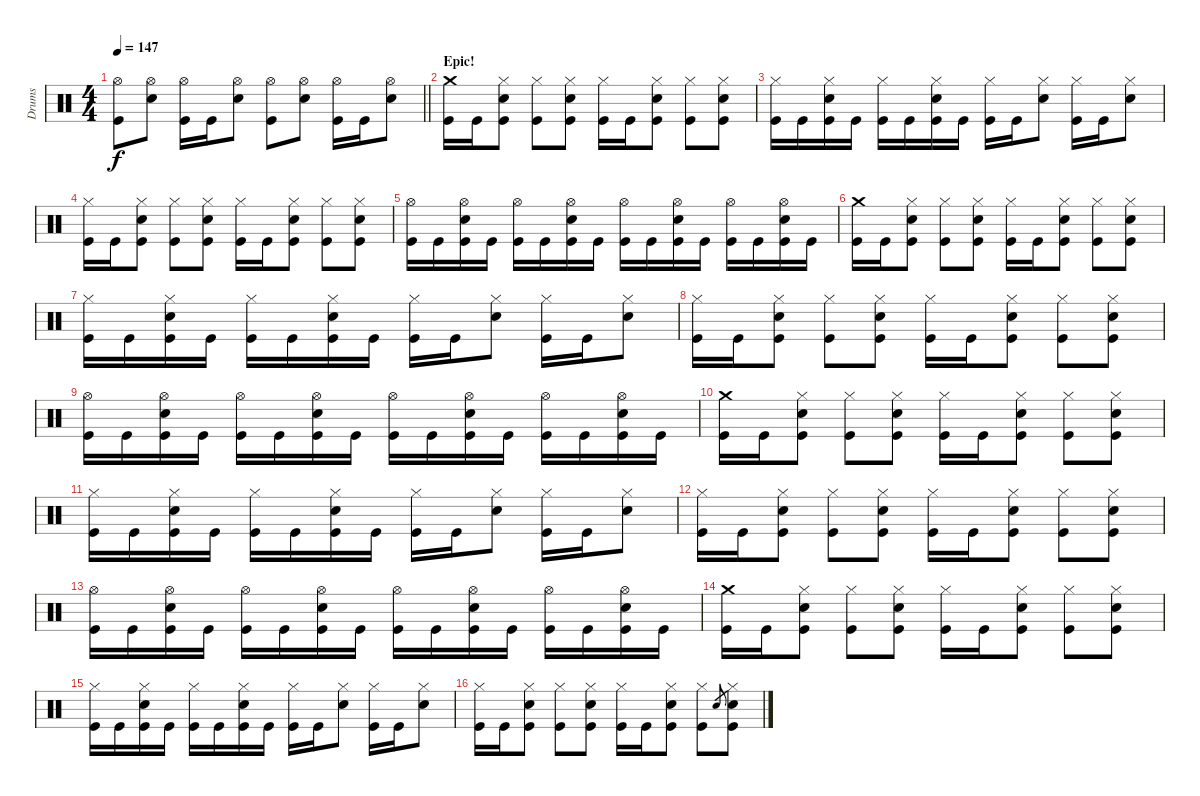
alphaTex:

\track ("Drums" "Drums") {instrument percussion}
\staff {score}
\articulation defaults
\ts (4 4)
\tempo 147
\clef neutral
\barLineRight lightlight
\ks c
("Hi-Hat (open)" "Kick (hit)").8{dy f} ("Hi-Hat (open)" "Electric Snare (hit)").8 ("Hi-Hat (open)" "Kick (hit)").16 "Kick (hit)".16 ("Hi-Hat (open)" "Electric Snare (hit)").8 ("Hi-Hat (open)" "Kick (hit)").8 ("Hi-Hat (open)" "Electric Snare (hit)").8 ("Hi-Hat (open)" "Kick (hit)").16 "Kick (hit)".16 ("Hi-Hat (open)" "Electric Snare (hit)").8 |
\section ("" "Epic!")
("Crash medium (hit)" "Kick (hit)").16 "Kick (hit)".16 ("Hi-Hat (closed)" "Electric Snare (hit)" "Kick (hit)").8 ("Hi-Hat (closed)" "Kick (hit)").8 ("Hi-Hat (closed)" "Electric Snare (hit)" "Kick (hit)").8 ("Hi-Hat (closed)" "Kick (hit)").16 "Kick (hit)".16 ("Hi-Hat (closed)" "Electric Snare (hit)" "Kick (hit)").8 ("Hi-Hat (closed)" "Kick (hit)").8 ("Hi-Hat (closed)" "Electric Snare (hit)" "Kick (hit)").8 |
("Hi-Hat (closed)" "Kick (hit)").16 "Kick (hit)".16 ("Hi-Hat (closed)" "Electric Snare (hit)" "Kick (hit)").16 "Kick (hit)".16 ("Hi-Hat (closed)" "Kick (hit)").16 "Kick (hit)".16 ("Hi-Hat (closed)" "Electric Snare (hit)" "Kick (hit)").16 "Kick (hit)".16 ("Hi-Hat (closed)" "Kick (hit)").16 "Kick (hit)".16 ("Hi-Hat (closed)" "Electric Snare (hit)").8 ("Hi-Hat (closed)" "Kick (hit)").16 "Kick (hit)".16 ("Hi-Hat (closed)" "Electric Snare (hit)").8 |
("Hi-Hat (closed)" "Kick (hit)").16 "Kick (hit)".16 ("Hi-Hat (closed)" "Electric Snare (hit)" "Kick (hit)").8 ("Hi-Hat (closed)" "Kick (hit)").8 ("Hi-Hat (closed)" "Electric Snare (hit)" "Kick (hit)").8 ("Hi-Hat (closed)" "Kick (hit)").16 "Kick (hit)".16 ("Hi-Hat (closed)" "Electric Snare (hit)" "Kick (hit)").8 ("Hi-Hat (closed)" "Kick (hit)").8 ("Hi-Hat (closed)" "Electric Snare (hit)" "Kick (hit)").8 |
("Hi-Hat (open)" "Kick (hit)").16 "Kick (hit)".16 ("Hi-Hat (open)" "Electric Snare (hit)" "Kick (hit)").16 "Kick (hit)".16 ("Hi-Hat (open)" "Kick (hit)").16 "Kick (hit)".16 ("Hi-Hat (open)" "Electric Snare (hit)" "Kick (hit)").16 "Kick (hit)".16 ("Hi-Hat (open)" "Kick (hit)").16 "Kick (hit)".16 ("Hi-Hat (open)" "Electric Snare (hit)" "Kick (hit)").16 "Kick (hit)".16 ("Hi-Hat (open)" "Kick (hit)").16 "Kick (hit)".16 ("Hi-Hat (open)" "Electric Snare (hit)" "Kick (hit)").16 "Kick (hit)".16 |
("Crash medium (hit)" "Kick (hit)").16 "Kick (hit)".16 ("Hi-Hat (closed)" "Electric Snare (hit)" "Kick (hit)").8 ("Hi-Hat (closed)" "Kick (hit)").8 ("Hi-Hat (closed)" "Electric Snare (hit)" "Kick (hit)").8 ("Hi-Hat (closed)" "Kick (hit)").16 "Kick (hit)".16 ("Hi-Hat (closed)" "Electric Snare (hit)" "Kick (hit)").8 ("Hi-Hat (closed)" "Kick (hit)").8 ("Hi-Hat (closed)" "Electric Snare (hit)" "Kick (hit)").8 |
("Hi-Hat (closed)" "Kick (hit)").16 "Kick (hit)".16 ("Hi-Hat (closed)" "Electric Snare (hit)" "Kick (hit)").16 "Kick (hit)".16 ("Hi-Hat (closed)" "Kick (hit)").16 "Kick (hit)".16 ("Hi-Hat (closed)" "Electric Snare (hit)" "Kick (hit)").16 "Kick (hit)".16 ("Hi-Hat (closed)" "Kick (hit)").16 "Kick (hit)".16 ("Hi-Hat (closed)" "Electric Snare (hit)").8 ("Hi-Hat (closed)" "Kick (hit)").16 "Kick (hit)".16 ("Hi-Hat (closed)" "Electric Snare (hit)").8 |
("Hi-Hat (closed)" "Kick (hit)").16 "Kick (hit)".16 ("Hi-Hat (closed)" "Electric Snare (hit)" "Kick (hit)").8 ("Hi-Hat (closed)" "Kick (hit)").8 ("Hi-Hat (closed)" "Electric Snare (hit)" "Kick (hit)").8 ("Hi-Hat (closed)" "Kick (hit)").16 "Kick (hit)".16 ("Hi-Hat (closed)" "Electric Snare (hit)" "Kick (hit)").8 ("Hi-Hat (closed)" "Kick (hit)").8 ("Hi-Hat (closed)" "Electric Snare (hit)" "Kick (hit)").8 |
("Hi-Hat (open)" "Kick (hit)").16 "Kick (hit)".16 ("Hi-Hat (open)" "Electric Snare (hit)" "Kick (hit)").16 "Kick (hit)".16 ("Hi-Hat (open)" "Kick (hit)").16 "Kick (hit)".16 ("Hi-Hat (open)" "Electric Snare (hit)" "Kick (hit)").16 "Kick (hit)".16 ("Hi-Hat (open)" "Kick (hit)").16 "Kick (hit)".16 ("Hi-Hat (open)" "Electric Snare (hit)" "Kick (hit)").16 "Kick (hit)".16 ("Hi-Hat (open)" "Kick (hit)").16 "Kick (hit)".16 ("Hi-Hat (open)" "Electric Snare (hit)" "Kick (hit)").16 "Kick (hit)".16 |
("Crash medium (hit)" "Kick (hit)").16 "Kick (hit)".16 ("Hi-Hat (closed)" "Electric Snare (hit)" "Kick (hit)").8 ("Hi-Hat (closed)" "Kick (hit)").8 ("Hi-Hat (closed)" "Electric Snare (hit)" "Kick (hit)").8 ("Hi-Hat (closed)" "Kick (hit)").16 "Kick (hit)".16 ("Hi-Hat (closed)" "Electric Snare (hit)" "Kick (hit)").8 ("Hi-Hat (closed)" "Kick (hit)").8 ("Hi-Hat (closed)" "Electric Snare (hit)" "Kick (hit)").8 |
("Hi-Hat (closed)" "Kick (hit)").16 "Kick (hit)".16 ("Hi-Hat (closed)" "Electric Snare (hit)" "Kick (hit)").16 "Kick (hit)".16 ("Hi-Hat (closed)" "Kick (hit)").16 "Kick (hit)".16 ("Hi-Hat (closed)" "Electric Snare (hit)" "Kick (hit)").16 "Kick (hit)".16 ("Hi-Hat (closed)" "Kick (hit)").16 "Kick (hit)".16 ("Hi-Hat (closed)" "Electric Snare (hit)").8 ("Hi-Hat (closed)" "Kick (hit)").16 "Kick (hit)".16 ("Hi-Hat (closed)" "Electric Snare (hit)").8 |
("Hi-Hat (closed)" "Kick (hit)").16 "Kick (hit)".16 ("Hi-Hat (closed)" "Electric Snare (hit)" "Kick (hit)").8 ("Hi-Hat (closed)" "Kick (hit)").8 ("Hi-Hat (closed)" "Electric Snare (hit)" "Kick (hit)").8 ("Hi-Hat (closed)" "Kick (hit)").16 "Kick (hit)".16 ("Hi-Hat (closed)" "Electric Snare (hit)" "Kick (hit)").8 ("Hi-Hat (closed)" "Kick (hit)").8 ("Hi-Hat (closed)" "Electric Snare (hit)" "Kick (hit)").8 |
("Hi-Hat (open)" "Kick (hit)").16 "Kick (hit)".16 ("Hi-Hat (open)" "Electric Snare (hit)" "Kick (hit)").16 "Kick (hit)".16 ("Hi-Hat (open)" "Kick (hit)").16 "Kick (hit)".16 ("Hi-Hat (open)" "Electric Snare (hit)" "Kick (hit)").16 "Kick (hit)".16 ("Hi-Hat (open)" "Kick (hit)").16 "Kick (hit)".16 ("Hi-Hat (open)" "Electric Snare (hit)" "Kick (hit)").16 "Kick (hit)".16 ("Hi-Hat (open)" "Kick (hit)").16 "Kick (hit)".16 ("Hi-Hat (open)" "Electric Snare (hit)" "Kick (hit)").16 "Kick (hit)".16 |
("Crash medium (hit)" "Kick (hit)").16 "Kick (hit)".16 ("Hi-Hat (closed)" "Electric Snare (hit)" "Kick (hit)").8 ("Hi-Hat (closed)" "Kick (hit)").8 ("Hi-Hat (closed)" "Electric Snare (hit)" "Kick (hit)").8 ("Hi-Hat (closed)" "Kick (hit)").16 "Kick (hit)".16 ("Hi-Hat (closed)" "Electric Snare (hit)" "Kick (hit)").8 ("Hi-Hat (closed)" "Kick (hit)").8 ("Hi-Hat (closed)" "Electric Snare (hit)" "Kick (hit)").8 |
("Hi-Hat (closed)" "Kick (hit)").16 "Kick (hit)".16 ("Hi-Hat (closed)" "Electric Snare (hit)" "Kick (hit)").16 "Kick (hit)".16 ("Hi-Hat (closed)" "Kick (hit)").16 "Kick (hit)".16 ("Hi-Hat (closed)" "Electric Snare (hit)" "Kick (hit)").16 "Kick (hit)".16 ("Hi-Hat (closed)" "Kick (hit)").16 "Kick (hit)".16 ("Hi-Hat (closed)" "Electric Snare (hit)").8 ("Hi-Hat (closed)" "Kick (hit)").16 "Kick (hit)".16 ("Hi-Hat (closed)" "Electric Snare (hit)").8 |
("Hi-Hat (closed)" "Kick (hit)").16 "Kick (hit)".16 ("Hi-Hat (closed)" "Electric Snare (hit)" "Kick (hit)").8 ("Hi-Hat (closed)" "Kick (hit)").8 ("Hi-Hat (closed)" "Electric Snare (hit)" "Kick (hit)").8 ("Hi-Hat (closed)" "Kick (hit)").16 "Kick (hit)".16 ("Hi-Hat (closed)" "Electric Snare (hit)" "Kick (hit)").8 ("Hi-Hat (closed)" "Kick (hit)").8 "Electric Snare (hit)".8{gr} ("Hi-Hat (closed)" "Electric Snare (hit)" "Kick (hit)").8
